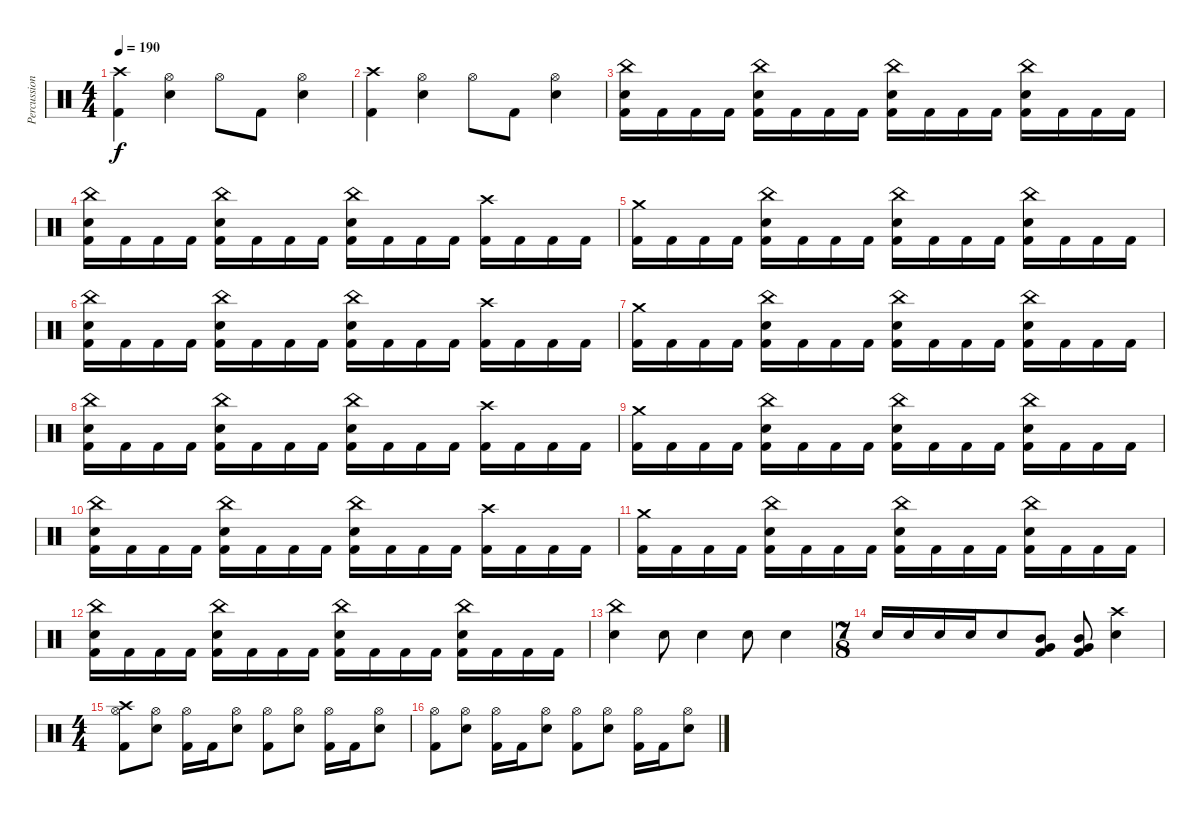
\track ("Percussion" "Percussion") {instrument percussion}
\staff {score}
\articulation defaults
\ts (4 4)
\tempo 190
\clef neutral
\ks c
("Crash high (hit)" "Kick (hit) 2").4{dy f} ("Hi-Hat (open)" "Snare (hit) 2").4 "Hi-Hat (open)".8 "Kick (hit) 2".8 ("Hi-Hat (open)" "Snare (hit) 2").4 |
("Crash high (hit)" "Kick (hit) 2").4 ("Hi-Hat (open)" "Snare (hit) 2").4 "Hi-Hat (open)".8 "Kick (hit) 2".8 ("Hi-Hat (open)" "Snare (hit) 2").4 |
("China (hit)" "Snare (hit) 2" "Kick (hit) 2").16 "Kick (hit) 2".16 "Kick (hit) 2".16 "Kick (hit) 2".16 ("China (hit)" "Snare (hit) 2" "Kick (hit) 2").16 "Kick (hit) 2".16 "Kick (hit) 2".16 "Kick (hit) 2".16 ("China (hit)" "Snare (hit) 2" "Kick (hit) 2").16 "Kick (hit) 2".16 "Kick (hit) 2".16 "Kick (hit) 2".16 ("China (hit)" "Snare (hit) 2" "Kick (hit) 2").16 "Kick (hit) 2".16 "Kick (hit) 2".16 "Kick (hit) 2".16 |
("China (hit)" "Snare (hit) 2" "Kick (hit) 2").16 "Kick (hit) 2".16 "Kick (hit) 2".16 "Kick (hit) 2".16 ("China (hit)" "Snare (hit) 2" "Kick (hit) 2").16 "Kick (hit) 2".16 "Kick (hit) 2".16 "Kick (hit) 2".16 ("China (hit)" "Snare (hit) 2" "Kick (hit) 2").16 "Kick (hit) 2".16 "Kick (hit) 2".16 "Kick (hit) 2".16 ("Crash high (hit)" "Kick (hit) 2").16 "Kick (hit) 2".16 "Kick (hit) 2".16 "Kick (hit) 2".16 |
("Crash medium (hit)" "Kick (hit) 2").16 "Kick (hit) 2".16 "Kick (hit) 2".16 "Kick (hit) 2".16 ("China (hit)" "Snare (hit) 2" "Kick (hit) 2").16 "Kick (hit) 2".16 "Kick (hit) 2".16 "Kick (hit) 2".16 ("China (hit)" "Snare (hit) 2" "Kick (hit) 2").16 "Kick (hit) 2".16 "Kick (hit) 2".16 "Kick (hit) 2".16 ("China (hit)" "Snare (hit) 2" "Kick (hit) 2").16 "Kick (hit) 2".16 "Kick (hit) 2".16 "Kick (hit) 2".16 |
("China (hit)" "Snare (hit) 2" "Kick (hit) 2").16 "Kick (hit) 2".16 "Kick (hit) 2".16 "Kick (hit) 2".16 ("China (hit)" "Snare (hit) 2" "Kick (hit) 2").16 "Kick (hit) 2".16 "Kick (hit) 2".16 "Kick (hit) 2".16 ("China (hit)" "Snare (hit) 2" "Kick (hit) 2").16 "Kick (hit) 2".16 "Kick (hit) 2".16 "Kick (hit) 2".16 ("Crash high (hit)" "Kick (hit) 2").16 "Kick (hit) 2".16 "Kick (hit) 2".16 "Kick (hit) 2".16 |
("Crash medium (hit)" "Kick (hit) 2").16 "Kick (hit) 2".16 "Kick (hit) 2".16 "Kick (hit) 2".16 ("China (hit)" "Snare (hit) 2" "Kick (hit) 2").16 "Kick (hit) 2".16 "Kick (hit) 2".16 "Kick (hit) 2".16 ("China (hit)" "Snare (hit) 2" "Kick (hit) 2").16 "Kick (hit) 2".16 "Kick (hit) 2".16 "Kick (hit) 2".16 ("China (hit)" "Snare (hit) 2" "Kick (hit) 2").16 "Kick (hit) 2".16 "Kick (hit) 2".16 "Kick (hit) 2".16 |
("China (hit)" "Snare (hit) 2" "Kick (hit) 2").16 "Kick (hit) 2".16 "Kick (hit) 2".16 "Kick (hit) 2".16 ("China (hit)" "Snare (hit) 2" "Kick (hit) 2").16 "Kick (hit) 2".16 "Kick (hit) 2".16 "Kick (hit) 2".16 ("China (hit)" "Snare (hit) 2" "Kick (hit) 2").16 "Kick (hit) 2".16 "Kick (hit) 2".16 "Kick (hit) 2".16 ("Crash high (hit)" "Kick (hit) 2").16 "Kick (hit) 2".16 "Kick (hit) 2".16 "Kick (hit) 2".16 |
("Crash medium (hit)" "Kick (hit) 2").16 "Kick (hit) 2".16 "Kick (hit) 2".16 "Kick (hit) 2".16 ("China (hit)" "Snare (hit) 2" "Kick (hit) 2").16 "Kick (hit) 2".16 "Kick (hit) 2".16 "Kick (hit) 2".16 ("China (hit)" "Snare (hit) 2" "Kick (hit) 2").16 "Kick (hit) 2".16 "Kick (hit) 2".16 "Kick (hit) 2".16 ("China (hit)" "Snare (hit) 2" "Kick (hit) 2").16 "Kick (hit) 2".16 "Kick (hit) 2".16 "Kick (hit) 2".16 |
("China (hit)" "Snare (hit) 2" "Kick (hit) 2").16 "Kick (hit) 2".16 "Kick (hit) 2".16 "Kick (hit) 2".16 ("China (hit)" "Snare (hit) 2" "Kick (hit) 2").16 "Kick (hit) 2".16 "Kick (hit) 2".16 "Kick (hit) 2".16 ("China (hit)" "Snare (hit) 2" "Kick (hit) 2").16 "Kick (hit) 2".16 "Kick (hit) 2".16 "Kick (hit) 2".16 ("Crash high (hit)" "Kick (hit) 2").16 "Kick (hit) 2".16 "Kick (hit) 2".16 "Kick (hit) 2".16 |
("Crash medium (hit)" "Kick (hit) 2").16 "Kick (hit) 2".16 "Kick (hit) 2".16 "Kick (hit) 2".16 ("China (hit)" "Snare (hit) 2" "Kick (hit) 2").16 "Kick (hit) 2".16 "Kick (hit) 2".16 "Kick (hit) 2".16 ("China (hit)" "Snare (hit) 2" "Kick (hit) 2").16 "Kick (hit) 2".16 "Kick (hit) 2".16 "Kick (hit) 2".16 ("China (hit)" "Snare (hit) 2" "Kick (hit) 2").16 "Kick (hit) 2".16 "Kick (hit) 2".16 "Kick (hit) 2".16 |
("China (hit)" "Snare (hit) 2" "Kick (hit) 2").16 "Kick (hit) 2".16 "Kick (hit) 2".16 "Kick (hit) 2".16 ("China (hit)" "Snare (hit) 2" "Kick (hit) 2").16 "Kick (hit) 2".16 "Kick (hit) 2".16 "Kick (hit) 2".16 ("China (hit)" "Snare (hit) 2" "Kick (hit) 2").16 "Kick (hit) 2".16 "Kick (hit) 2".16 "Kick (hit) 2".16 ("China (hit)" "Snare (hit) 2" "Kick (hit) 2").16 "Kick (hit) 2".16 "Kick (hit) 2".16 "Kick (hit) 2".16 |
("China (hit)" "Snare (hit) 2").4 "Snare (hit) 2".8 "Snare (hit) 2".4 "Snare (hit) 2".8 "Snare (hit) 2".4 |
\ts (7 8)
"Snare (hit) 2".16 "Snare (hit) 2".16 "Snare (hit) 2".16 "Snare (hit) 2".16 "Snare (hit) 2".8 ("Mid Tom (hit)" "Very Low Tom (hit)" "Kick (hit) 2").8 ("Mid Tom (hit)" "Very Low Tom (hit)" "Kick (hit) 2").8 ("Crash high (hit)" "Snare (hit) 2").4 |
\ts (4 4)
("Crash high (hit)" "Hi-Hat (open)" "Kick (hit) 2").8 ("Hi-Hat (open)" "Snare (hit) 2").8 ("Hi-Hat (open)" "Kick (hit) 2").16 "Kick (hit) 2".16 ("Hi-Hat (open)" "Snare (hit) 2").8 ("Hi-Hat (open)" "Kick (hit) 2").8 ("Hi-Hat (open)" "Snare (hit) 2").8 ("Hi-Hat (open)" "Kick (hit) 2").16 "Kick (hit) 2".16 ("Hi-Hat (open)" "Snare (hit) 2").8 |
("Hi-Hat (open)" "Kick (hit) 2").8 ("Hi-Hat (open)" "Snare (hit) 2").8 ("Hi-Hat (open)" "Kick (hit) 2").16 "Kick (hit) 2".16 ("Hi-Hat (open)" "Snare (hit) 2").8 ("Hi-Hat (open)" "Kick (hit) 2").8 ("Hi-Hat (open)" "Snare (hit) 2").8 ("Hi-Hat (open)" "Kick (hit) 2").16 "Kick (hit) 2".16 ("Hi-Hat (open)" "Snare (hit) 2").8
